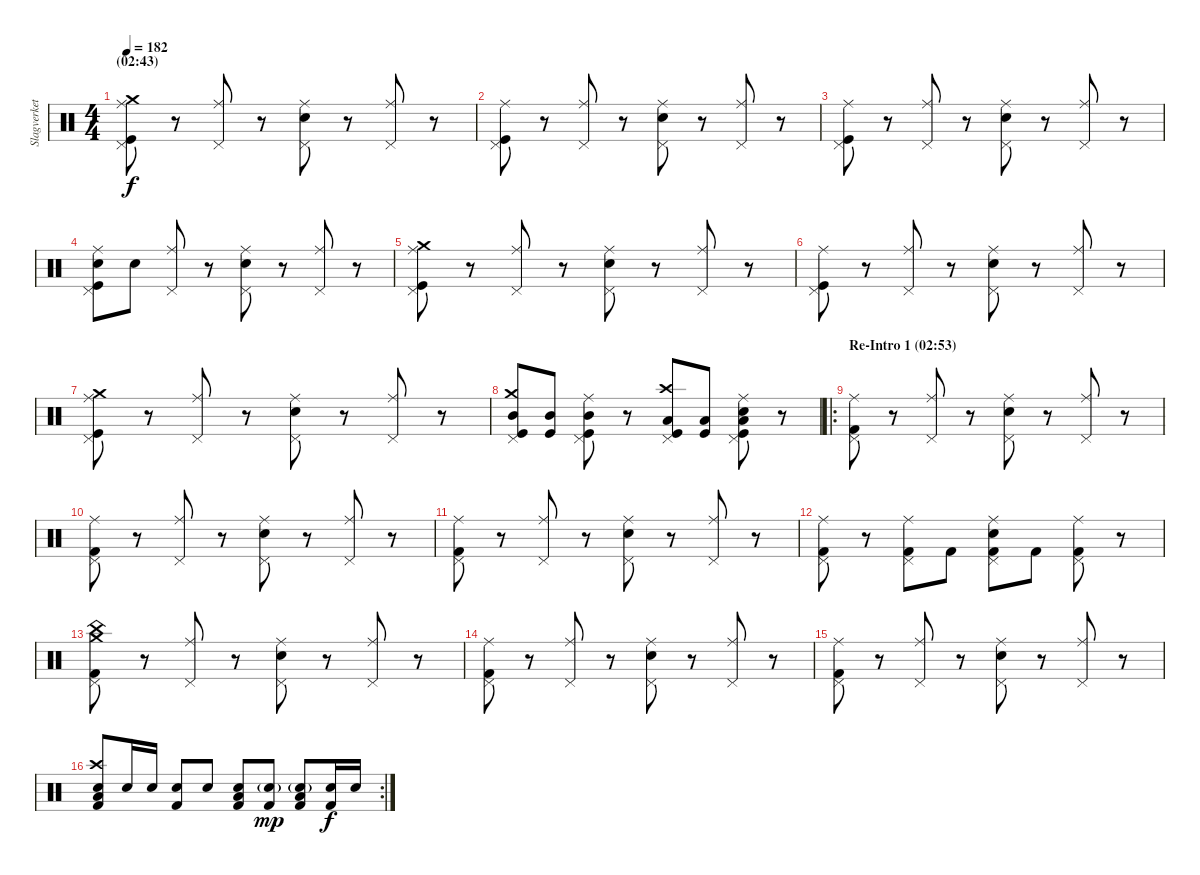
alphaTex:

\track ("Slagverket! =)" "Slagverket") {instrument percussion}
\staff {score}
\articulation defaults
\ts (4 4)
\section ("" "(02:43)")
\tempo 182
\clef neutral
\ks c
("Ride (middle)" "Pedal Hi-Hat (hit)" "Crash medium (hit)" "Kick (hit)").8{dy f} r.8 ("Ride (middle)" "Pedal Hi-Hat (hit)").8 r.8 ("Ride (middle)" "Pedal Hi-Hat (hit)" "Snare (hit) 2").8 r.8 ("Ride (middle)" "Pedal Hi-Hat (hit)").8 r.8 |
("Ride (middle)" "Pedal Hi-Hat (hit)" "Kick (hit)").8 r.8 ("Ride (middle)" "Pedal Hi-Hat (hit)").8 r.8 ("Ride (middle)" "Pedal Hi-Hat (hit)" "Snare (hit) 2").8 r.8 ("Ride (middle)" "Pedal Hi-Hat (hit)").8 r.8 |
("Ride (middle)" "Pedal Hi-Hat (hit)" "Kick (hit)").8 r.8 ("Ride (middle)" "Pedal Hi-Hat (hit)").8 r.8 ("Ride (middle)" "Pedal Hi-Hat (hit)" "Snare (hit) 2").8 r.8 ("Ride (middle)" "Pedal Hi-Hat (hit)").8 r.8 |
("Ride (middle)" "Pedal Hi-Hat (hit)" "Snare (hit) 2" "Kick (hit)").8 "Snare (hit) 2".8 ("Ride (middle)" "Pedal Hi-Hat (hit)").8 r.8 ("Ride (middle)" "Pedal Hi-Hat (hit)" "Snare (hit) 2").8 r.8 ("Ride (middle)" "Pedal Hi-Hat (hit)").8 r.8 |
("Ride (middle)" "Pedal Hi-Hat (hit)" "Crash medium (hit)" "Kick (hit)").8 r.8 ("Ride (middle)" "Pedal Hi-Hat (hit)").8 r.8 ("Ride (middle)" "Pedal Hi-Hat (hit)" "Snare (hit) 2").8 r.8 ("Ride (middle)" "Pedal Hi-Hat (hit)").8 r.8 |
("Ride (middle)" "Pedal Hi-Hat (hit)" "Kick (hit)").8 r.8 ("Ride (middle)" "Pedal Hi-Hat (hit)").8 r.8 ("Ride (middle)" "Pedal Hi-Hat (hit)" "Snare (hit) 2").8 r.8 ("Ride (middle)" "Pedal Hi-Hat (hit)").8 r.8 |
("Ride (middle)" "Pedal Hi-Hat (hit)" "Crash medium (hit)" "Kick (hit)").8 r.8 ("Ride (middle)" "Pedal Hi-Hat (hit)").8 r.8 ("Ride (middle)" "Pedal Hi-Hat (hit)" "Snare (hit) 2").8 r.8 ("Ride (middle)" "Pedal Hi-Hat (hit)").8 r.8 |
("Crash medium (hit)" "Pedal Hi-Hat (hit)" "Mid Tom (hit)" "Kick (hit)").8 ("Mid Tom (hit)" "Kick (hit)").8 ("Ride (middle)" "Pedal Hi-Hat (hit)" "Mid Tom (hit)" "Kick (hit)").8 r.8 ("Crash high (hit)" "Pedal Hi-Hat (hit)" "Kick (hit)" "Low Tom (hit)").8 ("Kick (hit)" "Low Tom (hit)").8 ("Ride (middle)" "Pedal Hi-Hat (hit)" "Snare (hit) 2" "Kick (hit)" "Low Tom (hit)").8 r.8 |
\ro
\section ("" "Re-Intro 1 (02:53)")
("Ride (middle)" "Pedal Hi-Hat (hit)" "Kick (hit) 2").8 r.8 ("Ride (middle)" "Pedal Hi-Hat (hit)").8 r.8 ("Ride (middle)" "Pedal Hi-Hat (hit)" "Snare (hit) 2").8 r.8 ("Ride (middle)" "Pedal Hi-Hat (hit)").8 r.8 |
("Ride (middle)" "Pedal Hi-Hat (hit)" "Kick (hit) 2").8 r.8 ("Ride (middle)" "Pedal Hi-Hat (hit)").8 r.8 ("Ride (middle)" "Pedal Hi-Hat (hit)" "Snare (hit) 2").8 r.8 ("Ride (middle)" "Pedal Hi-Hat (hit)").8 r.8 |
("Ride (middle)" "Pedal Hi-Hat (hit)" "Kick (hit) 2").8 r.8 ("Ride (middle)" "Pedal Hi-Hat (hit)").8 r.8 ("Ride (middle)" "Pedal Hi-Hat (hit)" "Snare (hit) 2").8 r.8 ("Ride (middle)" "Pedal Hi-Hat (hit)").8 r.8 |
("Ride (middle)" "Pedal Hi-Hat (hit)" "Kick (hit) 2").8 r.8 ("Ride (middle)" "Pedal Hi-Hat (hit)" "Kick (hit) 2").8 "Kick (hit) 2".8 ("Ride (middle)" "Pedal Hi-Hat (hit)" "Snare (hit) 2" "Kick (hit) 2").8 "Kick (hit) 2".8 ("Ride (middle)" "Pedal Hi-Hat (hit)" "Kick (hit) 2").8 r.8 |
("China (hit)" "Pedal Hi-Hat (hit)" "Crash medium (hit)" "Kick (hit) 2").8 r.8 ("Ride (middle)" "Pedal Hi-Hat (hit)").8 r.8 ("Ride (middle)" "Pedal Hi-Hat (hit)" "Snare (hit) 2").8 r.8 ("Ride (middle)" "Pedal Hi-Hat (hit)").8 r.8 |
("Ride (middle)" "Pedal Hi-Hat (hit)" "Kick (hit) 2").8 r.8 ("Ride (middle)" "Pedal Hi-Hat (hit)").8 r.8 ("Ride (middle)" "Pedal Hi-Hat (hit)" "Snare (hit) 2").8 r.8 ("Ride (middle)" "Pedal Hi-Hat (hit)").8 r.8 |
("Ride (middle)" "Pedal Hi-Hat (hit)" "Kick (hit) 2").8 r.8 ("Ride (middle)" "Pedal Hi-Hat (hit)").8 r.8 ("Ride (middle)" "Pedal Hi-Hat (hit)" "Snare (hit) 2").8 r.8 ("Ride (middle)" "Pedal Hi-Hat (hit)").8 r.8 |
\rc 2
("Crash high (hit)" "Low Tom (hit)" "Snare (hit) 2" "Kick (hit) 2").8 "Snare (hit) 2".16 "Snare (hit) 2".16 ("Snare (hit) 2" "Kick (hit) 2").8 "Snare (hit) 2".8 ("Low Tom (hit)" "Snare (hit) 2" "Kick (hit) 2").8 ("Snare (hit) 2"{g} "Kick (hit) 2").8{dy mp} ("Low Tom (hit)" "Snare (hit) 2"{g} "Kick (hit) 2").8 ("Snare (hit) 2" "Kick (hit) 2").16{dy f} "Snare (hit) 2".16
